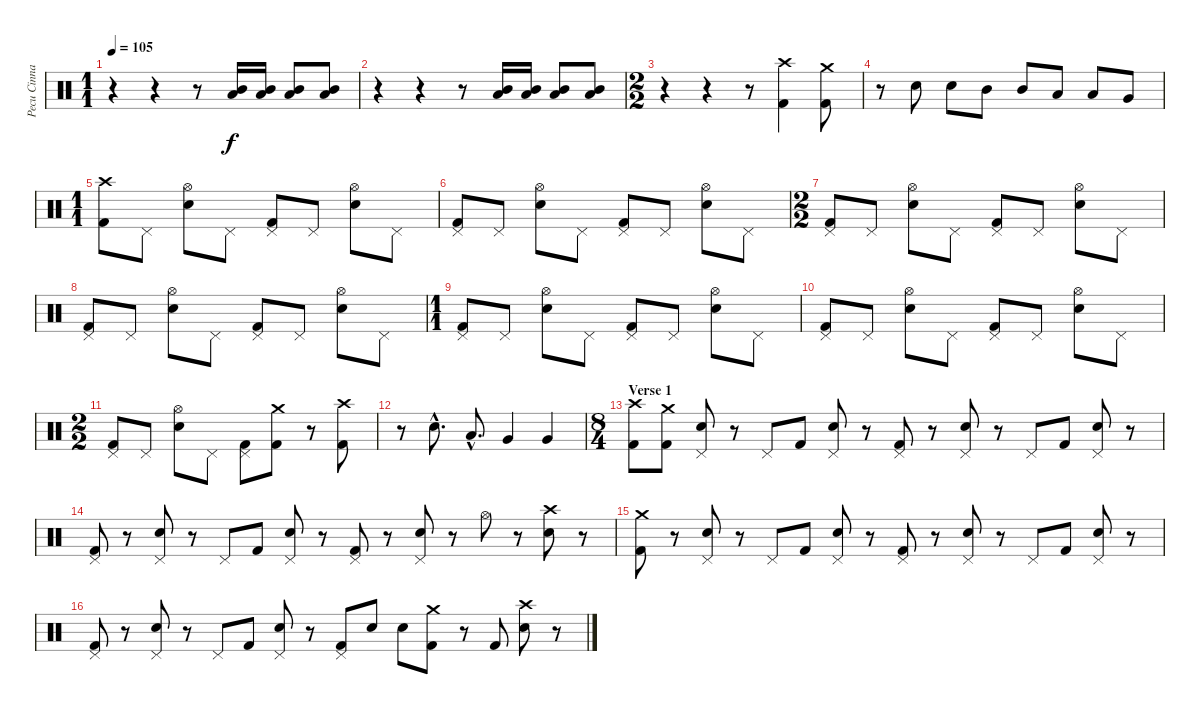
\track ("Pecu Cinnari" "Pecu Cinna") {instrument percussion}
\staff {score}
\articulation defaults
\ts (1 1)
\tempo 105
\clef neutral
\ks c
r.4{dy f} r.4 r.8 ("Mid Tom (hit)" "Low Tom (hit)").16 ("Mid Tom (hit)" "Low Tom (hit)").16 ("Mid Tom (hit)" "Low Tom (hit)").8 ("Mid Tom (hit)" "Low Tom (hit)").8 |
r.4 r.4 r.8 ("Mid Tom (hit)" "Low Tom (hit)").16 ("Mid Tom (hit)" "Low Tom (hit)").16 ("Mid Tom (hit)" "Low Tom (hit)").8 ("Mid Tom (hit)" "Low Tom (hit)").8 |
\ts (2 2)
r.4 r.4 r.8 ("Crash high (hit)" "Kick (hit) 2").4 ("Crash medium (hit)" "Kick (hit) 2").8 |
r.8 "Electric Snare (hit)".8 "Electric Snare (hit)".8 "Mid Tom (hit)".8 "Mid Tom (hit)".8 "Low Tom (hit)".8 "Low Tom (hit)".8 "Very Low Tom (hit)".8 |
\ts (1 1)
("Crash high (hit)" "Kick (hit) 2").8 "Pedal Hi-Hat (hit)".8 ("Hi-Hat (open)" "Electric Snare (hit)").8 "Pedal Hi-Hat (hit)".8 ("Pedal Hi-Hat (hit)" "Kick (hit) 2").8 "Pedal Hi-Hat (hit)".8 ("Hi-Hat (open)" "Electric Snare (hit)").8 "Pedal Hi-Hat (hit)".8 |
("Pedal Hi-Hat (hit)" "Kick (hit) 2").8 "Pedal Hi-Hat (hit)".8 ("Hi-Hat (open)" "Electric Snare (hit)").8 "Pedal Hi-Hat (hit)".8 ("Pedal Hi-Hat (hit)" "Kick (hit) 2").8 "Pedal Hi-Hat (hit)".8 ("Hi-Hat (open)" "Electric Snare (hit)").8 "Pedal Hi-Hat (hit)".8 |
\ts (2 2)
("Pedal Hi-Hat (hit)" "Kick (hit) 2").8 "Pedal Hi-Hat (hit)".8 ("Hi-Hat (open)" "Electric Snare (hit)").8 "Pedal Hi-Hat (hit)".8 ("Pedal Hi-Hat (hit)" "Kick (hit) 2").8 "Pedal Hi-Hat (hit)".8 ("Hi-Hat (open)" "Electric Snare (hit)").8 "Pedal Hi-Hat (hit)".8 |
("Pedal Hi-Hat (hit)" "Kick (hit) 2").8 "Pedal Hi-Hat (hit)".8 ("Hi-Hat (open)" "Electric Snare (hit)").8 "Pedal Hi-Hat (hit)".8 ("Pedal Hi-Hat (hit)" "Kick (hit) 2").8 "Pedal Hi-Hat (hit)".8 ("Hi-Hat (open)" "Electric Snare (hit)").8 "Pedal Hi-Hat (hit)".8 |
\ts (1 1)
("Pedal Hi-Hat (hit)" "Kick (hit) 2").8 "Pedal Hi-Hat (hit)".8 ("Hi-Hat (open)" "Electric Snare (hit)").8 "Pedal Hi-Hat (hit)".8 ("Pedal Hi-Hat (hit)" "Kick (hit) 2").8 "Pedal Hi-Hat (hit)".8 ("Hi-Hat (open)" "Electric Snare (hit)").8 "Pedal Hi-Hat (hit)".8 |
("Pedal Hi-Hat (hit)" "Kick (hit) 2").8 "Pedal Hi-Hat (hit)".8 ("Hi-Hat (open)" "Electric Snare (hit)").8 "Pedal Hi-Hat (hit)".8 ("Pedal Hi-Hat (hit)" "Kick (hit) 2").8 "Pedal Hi-Hat (hit)".8 ("Hi-Hat (open)" "Electric Snare (hit)").8 "Pedal Hi-Hat (hit)".8 |
\ts (2 2)
("Pedal Hi-Hat (hit)" "Kick (hit) 2").8 "Pedal Hi-Hat (hit)".8 ("Hi-Hat (open)" "Electric Snare (hit)").8 "Pedal Hi-Hat (hit)".8 ("Pedal Hi-Hat (hit)" "Kick (hit) 2").8 ("Crash medium (hit)" "Kick (hit) 2").8 r.8 ("Crash high (hit)" "Kick (hit) 2").8 |
r.8 "Electric Snare (hit)"{hac}.8{d} "Low Tom (hit)"{hac}.8{d} "Very Low Tom (hit)".4 "Very Low Tom (hit)".4 |
\ts (8 4)
\section ("" "Verse 1")
("Crash high (hit)" "Kick (hit) 2").8 ("Crash medium (hit)" "Kick (hit) 2").8 ("Pedal Hi-Hat (hit)" "Electric Snare (hit)").8 r.8 "Pedal Hi-Hat (hit)".8 "Kick (hit) 2".8 ("Pedal Hi-Hat (hit)" "Electric Snare (hit)").8 r.8 ("Pedal Hi-Hat (hit)" "Kick (hit) 2").8 r.8 ("Pedal Hi-Hat (hit)" "Electric Snare (hit)").8 r.8 "Pedal Hi-Hat (hit)".8 "Kick (hit) 2".8 ("Pedal Hi-Hat (hit)" "Electric Snare (hit)").8 r.8 |
("Pedal Hi-Hat (hit)" "Kick (hit) 2").8 r.8 ("Pedal Hi-Hat (hit)" "Electric Snare (hit)").8 r.8 "Pedal Hi-Hat (hit)".8 "Kick (hit) 2".8 ("Pedal Hi-Hat (hit)" "Electric Snare (hit)").8 r.8 ("Pedal Hi-Hat (hit)" "Kick (hit) 2").8 r.8 ("Pedal Hi-Hat (hit)" "Electric Snare (hit)").8 r.8 "Hi-Hat (open)".8 r.8 ("Crash high (hit)" "Electric Snare (hit)").8 r.8 |
("Crash medium (hit)" "Kick (hit) 2").8 r.8 ("Pedal Hi-Hat (hit)" "Electric Snare (hit)").8 r.8 "Pedal Hi-Hat (hit)".8 "Kick (hit) 2".8 ("Pedal Hi-Hat (hit)" "Electric Snare (hit)").8 r.8 ("Pedal Hi-Hat (hit)" "Kick (hit) 2").8 r.8 ("Pedal Hi-Hat (hit)" "Electric Snare (hit)").8 r.8 "Pedal Hi-Hat (hit)".8 "Kick (hit) 2".8 ("Pedal Hi-Hat (hit)" "Electric Snare (hit)").8 r.8 |
("Pedal Hi-Hat (hit)" "Kick (hit) 2").8 r.8 ("Pedal Hi-Hat (hit)" "Electric Snare (hit)").8 r.8 "Pedal Hi-Hat (hit)".8 "Kick (hit) 2".8 ("Pedal Hi-Hat (hit)" "Electric Snare (hit)").8 r.8 ("Pedal Hi-Hat (hit)" "Kick (hit) 2").8 "Electric Snare (hit)".8 "Electric Snare (hit)".8 ("Crash medium (hit)" "Kick (hit) 2").8 r.8 "Kick (hit) 2".8 ("Crash high (hit)" "Electric Snare (hit)").8 r.8
